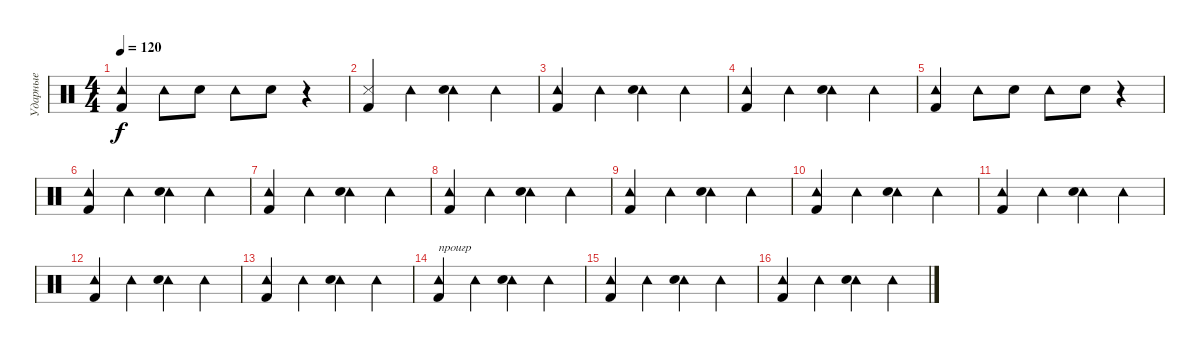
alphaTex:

\track ("Ударные" "Ударные") {instrument percussion}
\staff {score}
\articulation defaults
\ts (4 4)
\tempo 120
\clef neutral
\ks c
("Tambourine (hit)" "Kick (hit) 2").4{dy f} "Tambourine (hit)".8 "Electric Snare (hit)".8 "Tambourine (hit)".8 "Electric Snare (hit)".8 r.4 |
("Snare (side stick) 3" "Kick (hit) 2").4 "Tambourine (hit)".4 ("Tambourine (hit)" "Electric Snare (hit)").4 "Tambourine (hit)".4 |
("Tambourine (hit)" "Kick (hit) 2").4 "Tambourine (hit)".4 ("Tambourine (hit)" "Electric Snare (hit)").4 "Tambourine (hit)".4 |
("Tambourine (hit)" "Kick (hit) 2").4 "Tambourine (hit)".4 ("Tambourine (hit)" "Electric Snare (hit)").4 "Tambourine (hit)".4 |
("Tambourine (hit)" "Kick (hit) 2").4 "Tambourine (hit)".8 "Electric Snare (hit)".8 "Tambourine (hit)".8 "Electric Snare (hit)".8 r.4 |
("Tambourine (hit)" "Kick (hit) 2").4 "Tambourine (hit)".4 ("Tambourine (hit)" "Electric Snare (hit)").4 "Tambourine (hit)".4 |
("Tambourine (hit)" "Kick (hit) 2").4 "Tambourine (hit)".4 ("Tambourine (hit)" "Electric Snare (hit)").4 "Tambourine (hit)".4 |
("Tambourine (hit)" "Kick (hit) 2").4 "Tambourine (hit)".4 ("Tambourine (hit)" "Electric Snare (hit)").4 "Tambourine (hit)".4 |
("Tambourine (hit)" "Kick (hit) 2").4 "Tambourine (hit)".4 ("Tambourine (hit)" "Electric Snare (hit)").4 "Tambourine (hit)".4 |
("Tambourine (hit)" "Kick (hit) 2").4 "Tambourine (hit)".4 ("Tambourine (hit)" "Electric Snare (hit)").4 "Tambourine (hit)".4 |
("Tambourine (hit)" "Kick (hit) 2").4 "Tambourine (hit)".4 ("Tambourine (hit)" "Electric Snare (hit)").4 "Tambourine (hit)".4 |
("Tambourine (hit)" "Kick (hit) 2").4 "Tambourine (hit)".4 ("Tambourine (hit)" "Electric Snare (hit)").4 "Tambourine (hit)".4 |
("Tambourine (hit)" "Kick (hit) 2").4 "Tambourine (hit)".4 ("Tambourine (hit)" "Electric Snare (hit)").4 "Tambourine (hit)".4 |
("Tambourine (hit)" "Kick (hit) 2").4{txt "проигр"} "Tambourine (hit)".4 ("Tambourine (hit)" "Electric Snare (hit)").4 "Tambourine (hit)".4 |
("Tambourine (hit)" "Kick (hit) 2").4 "Tambourine (hit)".4 ("Tambourine (hit)" "Electric Snare (hit)").4 "Tambourine (hit)".4 |
("Tambourine (hit)" "Kick (hit) 2").4 "Tambourine (hit)".4 ("Tambourine (hit)" "Electric Snare (hit)").4 "Tambourine (hit)".4
